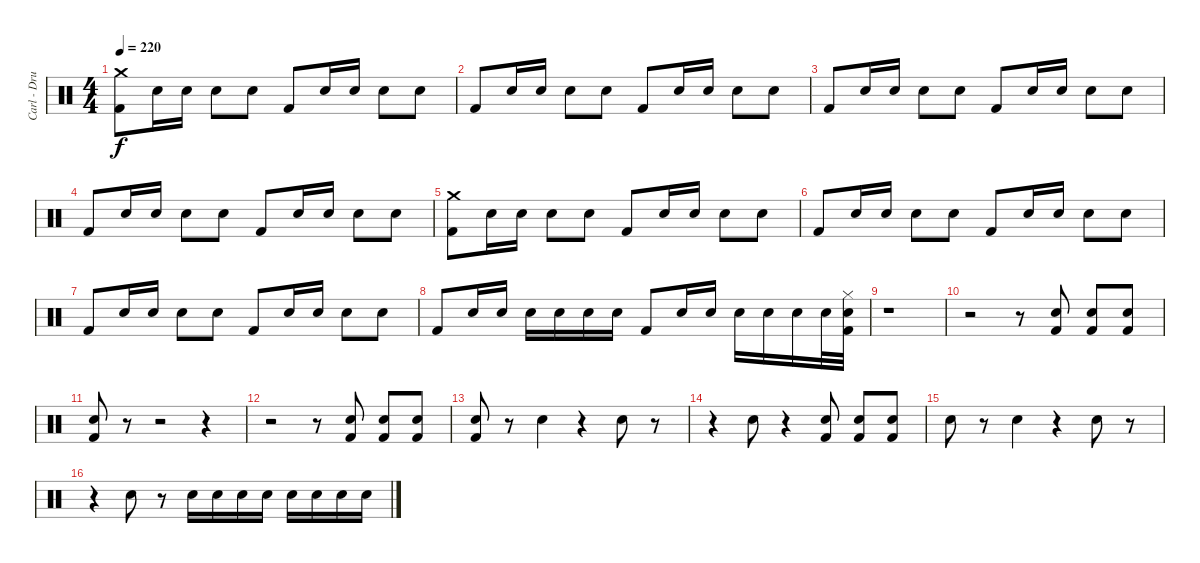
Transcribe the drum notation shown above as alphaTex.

\track ("Carl - Drums" "Carl - Dru") {instrument percussion}
\staff {score}
\articulation defaults
\ts (4 4)
\tempo 220
\clef neutral
\ks c
("Crash medium (hit)" "Kick (hit) 2").8{dy f} "Electric Snare (hit)".16 "Electric Snare (hit)".16 "Electric Snare (hit)".8 "Electric Snare (hit)".8 "Kick (hit) 2".8 "Electric Snare (hit)".16 "Electric Snare (hit)".16 "Electric Snare (hit)".8 "Electric Snare (hit)".8 |
"Kick (hit) 2".8 "Electric Snare (hit)".16 "Electric Snare (hit)".16 "Electric Snare (hit)".8 "Electric Snare (hit)".8 "Kick (hit) 2".8 "Electric Snare (hit)".16 "Electric Snare (hit)".16 "Electric Snare (hit)".8 "Electric Snare (hit)".8 |
"Kick (hit) 2".8 "Electric Snare (hit)".16 "Electric Snare (hit)".16 "Electric Snare (hit)".8 "Electric Snare (hit)".8 "Kick (hit) 2".8 "Electric Snare (hit)".16 "Electric Snare (hit)".16 "Electric Snare (hit)".8 "Electric Snare (hit)".8 |
"Kick (hit) 2".8 "Electric Snare (hit)".16 "Electric Snare (hit)".16 "Electric Snare (hit)".8 "Electric Snare (hit)".8 "Kick (hit) 2".8 "Electric Snare (hit)".16 "Electric Snare (hit)".16 "Electric Snare (hit)".8 "Electric Snare (hit)".8 |
("Crash medium (hit)" "Kick (hit) 2").8 "Electric Snare (hit)".16 "Electric Snare (hit)".16 "Electric Snare (hit)".8 "Electric Snare (hit)".8 "Kick (hit) 2".8 "Electric Snare (hit)".16 "Electric Snare (hit)".16 "Electric Snare (hit)".8 "Electric Snare (hit)".8 |
"Kick (hit) 2".8 "Electric Snare (hit)".16 "Electric Snare (hit)".16 "Electric Snare (hit)".8 "Electric Snare (hit)".8 "Kick (hit) 2".8 "Electric Snare (hit)".16 "Electric Snare (hit)".16 "Electric Snare (hit)".8 "Electric Snare (hit)".8 |
"Kick (hit) 2".8 "Electric Snare (hit)".16 "Electric Snare (hit)".16 "Electric Snare (hit)".8 "Electric Snare (hit)".8 "Kick (hit) 2".8 "Electric Snare (hit)".16 "Electric Snare (hit)".16 "Electric Snare (hit)".8 "Electric Snare (hit)".8 |
"Kick (hit) 2".8 "Electric Snare (hit)".16 "Electric Snare (hit)".16 "Electric Snare (hit)".16 "Electric Snare (hit)".16 "Electric Snare (hit)".16 "Electric Snare (hit)".16 "Kick (hit) 2".8 "Electric Snare (hit)".16 "Electric Snare (hit)".16 "Electric Snare (hit)".16 "Electric Snare (hit)".16 "Electric Snare (hit)".16 "Electric Snare (hit)".32 ("Kick (hit) 2" "Hi-Hat (closed)" "Electric Snare (hit)").32 |
r.1 |
r.2 r.8 ("Electric Snare (hit)" "Kick (hit) 2").8 ("Electric Snare (hit)" "Kick (hit) 2").8 ("Electric Snare (hit)" "Kick (hit) 2").8 |
("Electric Snare (hit)" "Kick (hit) 2").8 r.8 r.2 r.4 |
r.2 r.8 ("Electric Snare (hit)" "Kick (hit) 2").8 ("Electric Snare (hit)" "Kick (hit) 2").8 ("Electric Snare (hit)" "Kick (hit) 2").8 |
("Electric Snare (hit)" "Kick (hit) 2").8 r.8 "Electric Snare (hit)".4 r.4 "Electric Snare (hit)".8 r.8 |
r.4 "Electric Snare (hit)".8 r.4 ("Electric Snare (hit)" "Kick (hit) 2").8 ("Electric Snare (hit)" "Kick (hit) 2").8 ("Electric Snare (hit)" "Kick (hit) 2").8 |
"Electric Snare (hit)".8 r.8 "Electric Snare (hit)".4 r.4 "Electric Snare (hit)".8 r.8 |
r.4 "Electric Snare (hit)".8 r.8 "Electric Snare (hit)".16 "Electric Snare (hit)".16 "Electric Snare (hit)".16 "Electric Snare (hit)".16 "Electric Snare (hit)".16 "Electric Snare (hit)".16 "Electric Snare (hit)".16 "Electric Snare (hit)".16
